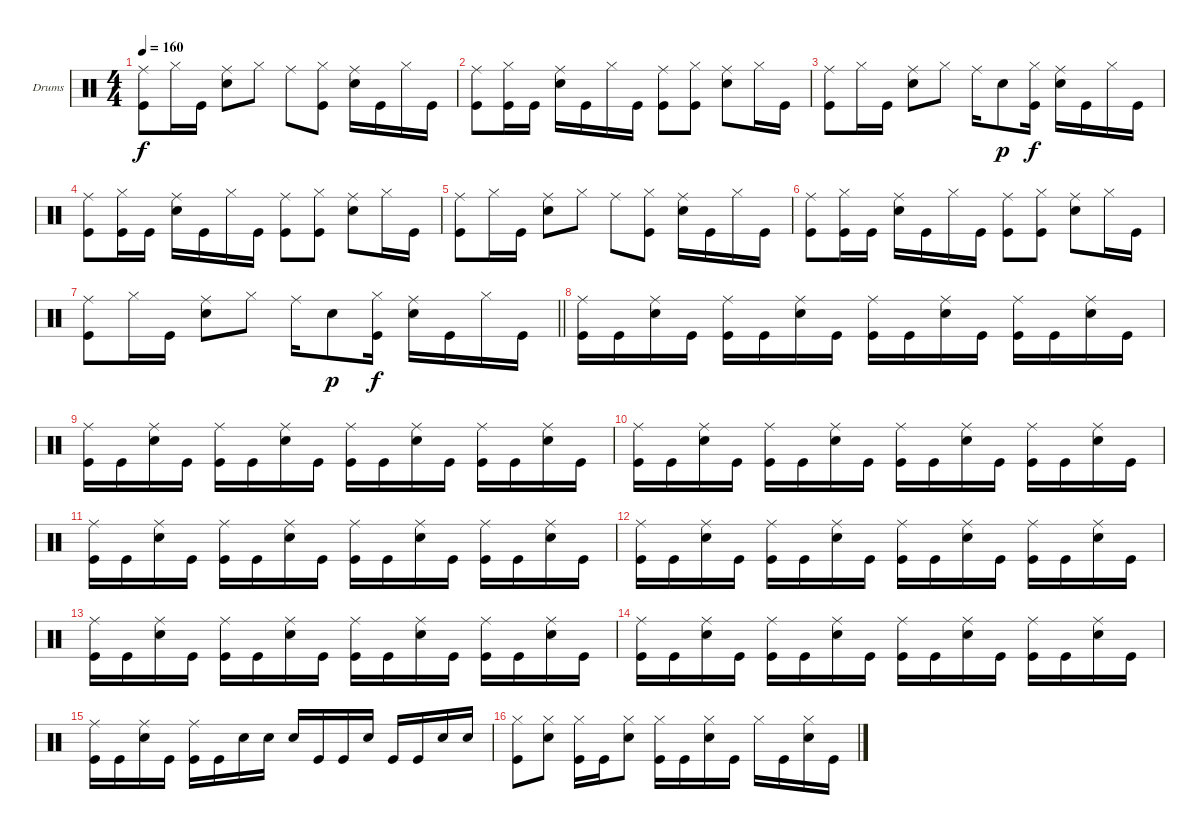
\defaultSystemsLayout 4
\bracketExtendMode groupsimilarinstruments
\firstSystemTrackNameOrientation horizontal
\otherSystemsTrackNameOrientation horizontal
\track ("Drums" "Drums") {instrument percussion}
\staff {score}
\articulation defaults
\ts (4 4)
\tempo 160
\clef neutral
\ks aminor
("Kick (hit)" "Ride (middle)").8{dy f} "Hi-Hat (closed)".16 "Kick (hit)".16 ("Snare (hit) 2" "Ride (middle)").8 "Hi-Hat (closed)".8 "Ride (middle)".8 ("Kick (hit)" "Hi-Hat (closed)").8 ("Snare (hit) 2" "Ride (middle)").16 "Kick (hit)".16 "Hi-Hat (closed)".16 "Kick (hit)".16 |
("Kick (hit)" "Ride (middle)").8 ("Kick (hit)" "Hi-Hat (closed)").16 "Kick (hit)".16 ("Snare (hit) 2" "Ride (middle)").16 "Kick (hit)".16 "Hi-Hat (closed)".16 "Kick (hit)".16 ("Kick (hit)" "Ride (middle)").8 ("Kick (hit)" "Hi-Hat (closed)").8 ("Snare (hit) 2" "Ride (middle)").8 "Hi-Hat (closed)".16 "Kick (hit)".16 |
("Kick (hit)" "Ride (middle)").8 "Hi-Hat (closed)".16 "Kick (hit)".16 ("Snare (hit) 2" "Ride (middle)").8 "Hi-Hat (closed)".8 "Ride (middle)".16 "Snare (hit) 2".8{dy p} ("Kick (hit)" "Hi-Hat (closed)").16{dy f} ("Snare (hit) 2" "Ride (middle)").16 "Kick (hit)".16 "Hi-Hat (closed)".16 "Kick (hit)".16 |
("Kick (hit)" "Ride (middle)").8 ("Kick (hit)" "Hi-Hat (closed)").16 "Kick (hit)".16 ("Snare (hit) 2" "Ride (middle)").16 "Kick (hit)".16 "Hi-Hat (closed)".16 "Kick (hit)".16 ("Kick (hit)" "Ride (middle)").8 ("Kick (hit)" "Hi-Hat (closed)").8 ("Snare (hit) 2" "Ride (middle)").8 "Hi-Hat (closed)".16 "Kick (hit)".16 |
("Kick (hit)" "Ride (middle)").8 "Hi-Hat (closed)".16 "Kick (hit)".16 ("Snare (hit) 2" "Ride (middle)").8 "Hi-Hat (closed)".8 "Ride (middle)".8 ("Kick (hit)" "Hi-Hat (closed)").8 ("Snare (hit) 2" "Ride (middle)").16 "Kick (hit)".16 "Hi-Hat (closed)".16 "Kick (hit)".16 |
("Kick (hit)" "Ride (middle)").8 ("Kick (hit)" "Hi-Hat (closed)").16 "Kick (hit)".16 ("Snare (hit) 2" "Ride (middle)").16 "Kick (hit)".16 "Hi-Hat (closed)".16 "Kick (hit)".16 ("Kick (hit)" "Ride (middle)").8 ("Kick (hit)" "Hi-Hat (closed)").8 ("Snare (hit) 2" "Ride (middle)").8 "Hi-Hat (closed)".16 "Kick (hit)".16 |
\barLineRight lightlight
("Kick (hit)" "Ride (middle)").8 "Hi-Hat (closed)".16 "Kick (hit)".16 ("Snare (hit) 2" "Ride (middle)").8 "Hi-Hat (closed)".8 "Ride (middle)".16 "Snare (hit) 2".8{dy p} ("Kick (hit)" "Hi-Hat (closed)").16{dy f} ("Snare (hit) 2" "Ride (middle)").16 "Kick (hit)".16 "Hi-Hat (closed)".16 "Kick (hit)".16 |
("Kick (hit)" "Ride (middle)").16 "Kick (hit)".16 ("Snare (hit) 2" "Ride (middle)").16 "Kick (hit)".16 ("Kick (hit)" "Ride (middle)").16 "Kick (hit)".16 ("Snare (hit) 2" "Ride (middle)").16 "Kick (hit)".16 ("Kick (hit)" "Ride (middle)").16 "Kick (hit)".16 ("Snare (hit) 2" "Ride (middle)").16 "Kick (hit)".16 ("Kick (hit)" "Ride (middle)").16 "Kick (hit)".16 ("Snare (hit) 2" "Ride (middle)").16 "Kick (hit)".16 |
("Kick (hit)" "Ride (middle)").16 "Kick (hit)".16 ("Snare (hit) 2" "Ride (middle)").16 "Kick (hit)".16 ("Kick (hit)" "Ride (middle)").16 "Kick (hit)".16 ("Snare (hit) 2" "Ride (middle)").16 "Kick (hit)".16 ("Kick (hit)" "Ride (middle)").16 "Kick (hit)".16 ("Snare (hit) 2" "Ride (middle)").16 "Kick (hit)".16 ("Kick (hit)" "Ride (middle)").16 "Kick (hit)".16 ("Snare (hit) 2" "Ride (middle)").16 "Kick (hit)".16 |
("Kick (hit)" "Ride (middle)").16 "Kick (hit)".16 ("Snare (hit) 2" "Ride (middle)").16 "Kick (hit)".16 ("Kick (hit)" "Ride (middle)").16 "Kick (hit)".16 ("Snare (hit) 2" "Ride (middle)").16 "Kick (hit)".16 ("Kick (hit)" "Ride (middle)").16 "Kick (hit)".16 ("Snare (hit) 2" "Ride (middle)").16 "Kick (hit)".16 ("Kick (hit)" "Ride (middle)").16 "Kick (hit)".16 ("Snare (hit) 2" "Ride (middle)").16 "Kick (hit)".16 |
("Kick (hit)" "Ride (middle)").16 "Kick (hit)".16 ("Snare (hit) 2" "Ride (middle)").16 "Kick (hit)".16 ("Kick (hit)" "Ride (middle)").16 "Kick (hit)".16 ("Snare (hit) 2" "Ride (middle)").16 "Kick (hit)".16 ("Kick (hit)" "Ride (middle)").16 "Kick (hit)".16 ("Snare (hit) 2" "Ride (middle)").16 "Kick (hit)".16 ("Kick (hit)" "Ride (middle)").16 "Kick (hit)".16 ("Snare (hit) 2" "Ride (middle)").16 "Kick (hit)".16 |
("Kick (hit)" "Ride (middle)").16 "Kick (hit)".16 ("Snare (hit) 2" "Ride (middle)").16 "Kick (hit)".16 ("Kick (hit)" "Ride (middle)").16 "Kick (hit)".16 ("Snare (hit) 2" "Ride (middle)").16 "Kick (hit)".16 ("Kick (hit)" "Ride (middle)").16 "Kick (hit)".16 ("Snare (hit) 2" "Ride (middle)").16 "Kick (hit)".16 ("Kick (hit)" "Ride (middle)").16 "Kick (hit)".16 ("Snare (hit) 2" "Ride (middle)").16 "Kick (hit)".16 |
("Kick (hit)" "Ride (middle)").16 "Kick (hit)".16 ("Snare (hit) 2" "Ride (middle)").16 "Kick (hit)".16 ("Kick (hit)" "Ride (middle)").16 "Kick (hit)".16 ("Snare (hit) 2" "Ride (middle)").16 "Kick (hit)".16 ("Kick (hit)" "Ride (middle)").16 "Kick (hit)".16 ("Snare (hit) 2" "Ride (middle)").16 "Kick (hit)".16 ("Kick (hit)" "Ride (middle)").16 "Kick (hit)".16 ("Snare (hit) 2" "Ride (middle)").16 "Kick (hit)".16 |
("Kick (hit)" "Ride (middle)").16 "Kick (hit)".16 ("Snare (hit) 2" "Ride (middle)").16 "Kick (hit)".16 ("Kick (hit)" "Ride (middle)").16 "Kick (hit)".16 ("Snare (hit) 2" "Ride (middle)").16 "Kick (hit)".16 ("Kick (hit)" "Ride (middle)").16 "Kick (hit)".16 ("Snare (hit) 2" "Ride (middle)").16 "Kick (hit)".16 ("Kick (hit)" "Ride (middle)").16 "Kick (hit)".16 ("Snare (hit) 2" "Ride (middle)").16 "Kick (hit)".16 |
("Kick (hit)" "Ride (middle)").16 "Kick (hit)".16 ("Snare (hit) 2" "Ride (middle)").16 "Kick (hit)".16 ("Kick (hit)" "Ride (middle)").16 "Kick (hit)".16 "Snare (hit) 2".16 "Snare (hit) 2".16 "Snare (hit) 2".16 "Kick (hit)".16 "Kick (hit)".16 "Snare (hit) 2".16 "Kick (hit)".16 "Kick (hit)".16 "Snare (hit) 2".16 "Snare (hit) 2".16 |
("Kick (hit)" "Hi-Hat (closed)").8 ("Snare (hit) 2" "Hi-Hat (closed)").8 ("Kick (hit)" "Hi-Hat (closed)").16 "Kick (hit)".16 ("Snare (hit) 2" "Hi-Hat (closed)").8 ("Kick (hit)" "Hi-Hat (closed)").16 "Kick (hit)".16 ("Snare (hit) 2" "Hi-Hat (closed)").16 "Kick (hit)".16 "Hi-Hat (closed)".16 "Kick (hit)".16 ("Snare (hit) 2" "Hi-Hat (closed)").16 "Kick (hit)".16
